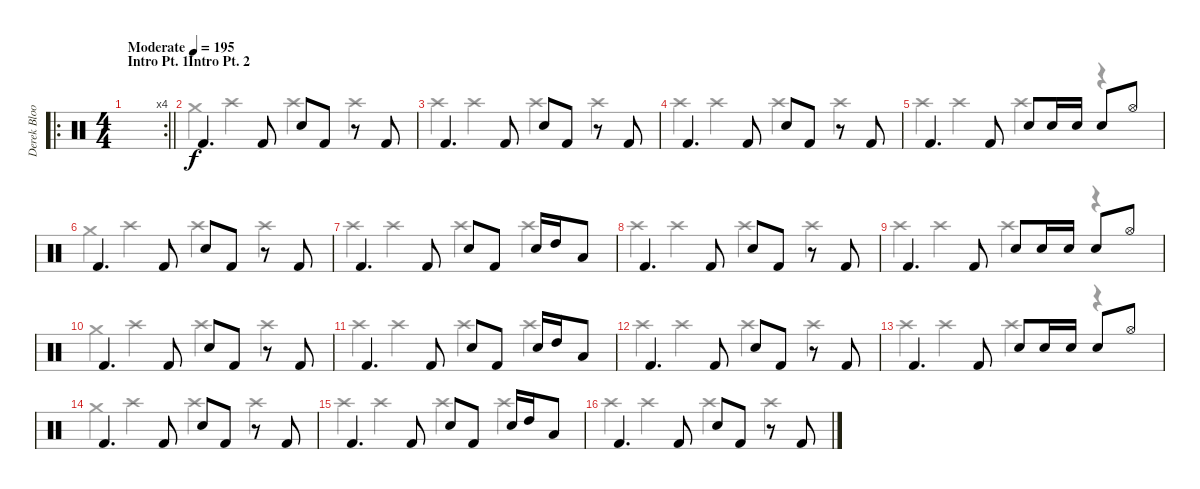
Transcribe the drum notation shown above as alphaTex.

\track ("Derek Bloom" "Derek Bloo") {instrument percussion}
\staff {score}
\articulation defaults
\voice
\ro
\rc 4
\ts (4 4)
\section ("" "Intro Pt. 1")
\tempo (195 "Moderate")
\clef neutral
\barLineRight lightlight
\ks c
|
\section ("" "Intro Pt. 2")
"Kick (hit) 2".4{d} "Kick (hit) 2".8 "Electric Snare (hit)".8 "Kick (hit) 2".8 r.8 "Kick (hit) 2".8 |
"Kick (hit) 2".4{d} "Kick (hit) 2".8 "Electric Snare (hit)".8 "Kick (hit) 2".8 r.8 "Kick (hit) 2".8 |
"Kick (hit) 2".4{d} "Kick (hit) 2".8 "Electric Snare (hit)".8 "Kick (hit) 2".8 r.8 "Kick (hit) 2".8 |
"Kick (hit) 2".4{d} "Kick (hit) 2".8 "Electric Snare (hit)".8 "Electric Snare (hit)".16 "Electric Snare (hit)".16 "Electric Snare (hit)".8 "Hi-Hat (open)".8 |
"Kick (hit) 2".4{d} "Kick (hit) 2".8 "Electric Snare (hit)".8 "Kick (hit) 2".8 r.8 "Kick (hit) 2".8 |
"Kick (hit) 2".4{d} "Kick (hit) 2".8 "Electric Snare (hit)".8 "Kick (hit) 2".8 "Electric Snare (hit)".16 "High Tom (hit)".16 "Low Tom (hit)".8 |
"Kick (hit) 2".4{d} "Kick (hit) 2".8 "Electric Snare (hit)".8 "Kick (hit) 2".8 r.8 "Kick (hit) 2".8 |
"Kick (hit) 2".4{d} "Kick (hit) 2".8 "Electric Snare (hit)".8 "Electric Snare (hit)".16 "Electric Snare (hit)".16 "Electric Snare (hit)".8 "Hi-Hat (open)".8 |
"Kick (hit) 2".4{d} "Kick (hit) 2".8 "Electric Snare (hit)".8 "Kick (hit) 2".8 r.8 "Kick (hit) 2".8 |
"Kick (hit) 2".4{d} "Kick (hit) 2".8 "Electric Snare (hit)".8 "Kick (hit) 2".8 "Electric Snare (hit)".16 "High Tom (hit)".16 "Low Tom (hit)".8 |
"Kick (hit) 2".4{d} "Kick (hit) 2".8 "Electric Snare (hit)".8 "Kick (hit) 2".8 r.8 "Kick (hit) 2".8 |
"Kick (hit) 2".4{d} "Kick (hit) 2".8 "Electric Snare (hit)".8 "Electric Snare (hit)".16 "Electric Snare (hit)".16 "Electric Snare (hit)".8 "Hi-Hat (open)".8 |
"Kick (hit) 2".4{d} "Kick (hit) 2".8 "Electric Snare (hit)".8 "Kick (hit) 2".8 r.8 "Kick (hit) 2".8 |
"Kick (hit) 2".4{d} "Kick (hit) 2".8 "Electric Snare (hit)".8 "Kick (hit) 2".8 "Electric Snare (hit)".16 "High Tom (hit)".16 "Low Tom (hit)".8 |
"Kick (hit) 2".4{d} "Kick (hit) 2".8 "Electric Snare (hit)".8 "Kick (hit) 2".8 r.8 "Kick (hit) 2".8
\voice
\clef neutral
\ottava regular
\simile none
\barLineRight lightlight
\ks c
|
"Crash medium (hit)".4 "Crash high (hit)".4 "Crash high (hit)".4 "Crash high (hit)".4 |
"Crash high (hit)".4 "Crash high (hit)".4 "Crash high (hit)".4 "Crash high (hit)".4 |
"Crash high (hit)".4 "Crash high (hit)".4 "Crash high (hit)".4 "Crash high (hit)".4 |
"Crash high (hit)".4 "Crash high (hit)".4 "Crash high (hit)".4 r.4 |
"Crash medium (hit)".4 "Crash high (hit)".4 "Crash high (hit)".4 "Crash high (hit)".4 |
"Crash high (hit)".4 "Crash high (hit)".4 "Crash high (hit)".4 "Crash high (hit)".4 |
"Crash high (hit)".4 "Crash high (hit)".4 "Crash high (hit)".4 "Crash high (hit)".4 |
"Crash high (hit)".4 "Crash high (hit)".4 "Crash high (hit)".4 r.4 |
"Crash medium (hit)".4 "Crash high (hit)".4 "Crash high (hit)".4 "Crash high (hit)".4 |
"Crash high (hit)".4 "Crash high (hit)".4 "Crash high (hit)".4 "Crash high (hit)".4 |
"Crash high (hit)".4 "Crash high (hit)".4 "Crash high (hit)".4 "Crash high (hit)".4 |
"Crash high (hit)".4 "Crash high (hit)".4 "Crash high (hit)".4 r.4 |
"Crash medium (hit)".4 "Crash high (hit)".4 "Crash high (hit)".4 "Crash high (hit)".4 |
"Crash high (hit)".4 "Crash high (hit)".4 "Crash high (hit)".4 "Crash high (hit)".4 |
"Crash high (hit)".4 "Crash high (hit)".4 "Crash high (hit)".4 "Crash high (hit)".4
